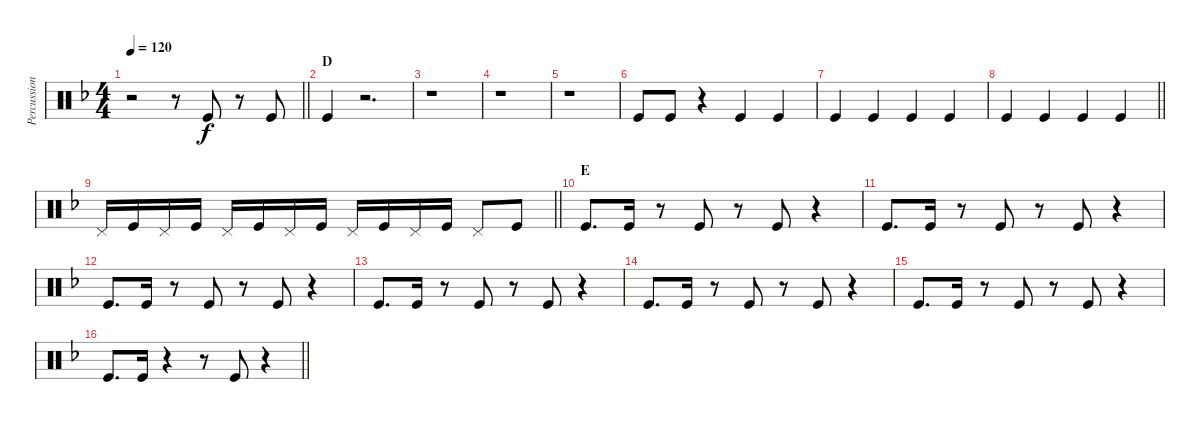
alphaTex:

\track ("Percussion foot" "Percussion") {instrument percussion}
\staff {score}
\articulation defaults
\ts (4 4)
\tempo 120
\clef neutral
\barLineRight lightlight
\ks f
r.2{dy f} r.8 "Kick (hit)".8 r.8 "Kick (hit)".8 |
\section ("" "D")
"Kick (hit)".4 r.2{d} |
r.1 |
r.1 |
r.1 |
"Kick (hit)".8 "Kick (hit)".8 r.4 "Kick (hit)".4 "Kick (hit)".4 |
"Kick (hit)".4 "Kick (hit)".4 "Kick (hit)".4 "Kick (hit)".4 |
\barLineRight lightlight "Kick (hit)".4 "Kick (hit)".4 "Kick (hit)".4 "Kick (hit)".4
|
\barLineRight lightlight "Pedal Hi-Hat (hit)".16 "Kick (hit)".16 "Pedal Hi-Hat (hit)".16 "Kick (hit)".16 "Pedal Hi-Hat (hit)".16 "Kick (hit)".16 "Pedal Hi-Hat (hit)".16 "Kick (hit)".16 "Pedal Hi-Hat (hit)".16 "Kick (hit)".16 "Pedal Hi-Hat (hit)".16 "Kick (hit)".16 "Pedal Hi-Hat (hit)".8 "Kick (hit)".8
|
\section ("" "E")
"Kick (hit)".8{d} "Kick (hit)".16 r.8 "Kick (hit)".8 r.8 "Kick (hit)".8 r.4 |
"Kick (hit)".8{d} "Kick (hit)".16 r.8 "Kick (hit)".8 r.8 "Kick (hit)".8 r.4 |
"Kick (hit)".8{d} "Kick (hit)".16 r.8 "Kick (hit)".8 r.8 "Kick (hit)".8 r.4 |
"Kick (hit)".8{d} "Kick (hit)".16 r.8 "Kick (hit)".8 r.8 "Kick (hit)".8 r.4 |
"Kick (hit)".8{d} "Kick (hit)".16 r.8 "Kick (hit)".8 r.8 "Kick (hit)".8 r.4 |
"Kick (hit)".8{d} "Kick (hit)".16 r.8 "Kick (hit)".8 r.8 "Kick (hit)".8 r.4 |
\barLineRight lightlight "Kick (hit)".8{d} "Kick (hit)".16
r.4 r.8 "Kick (hit)".8 r.4
